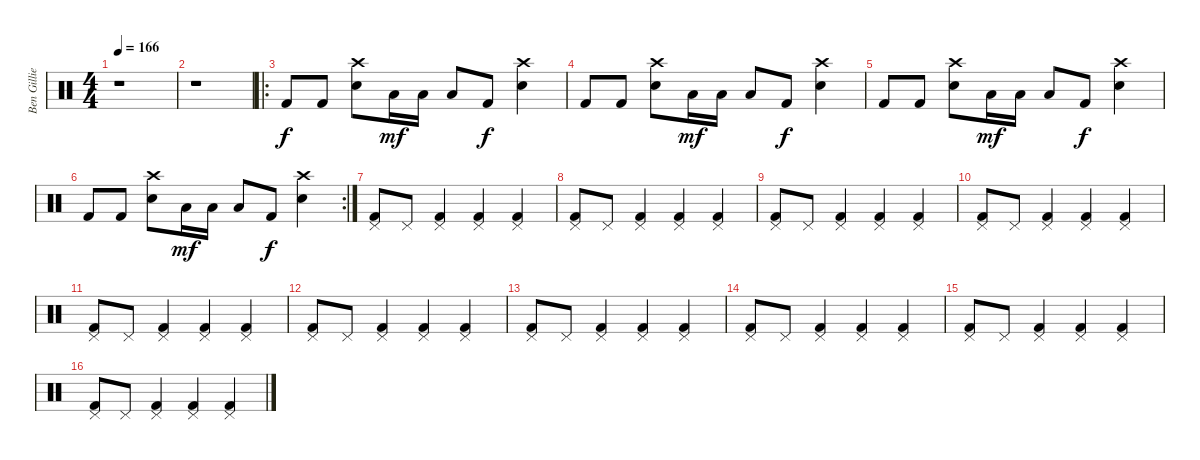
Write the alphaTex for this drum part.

\track ("Ben Gillies" "Ben Gillie") {instrument percussion}
\staff {score}
\articulation defaults
\ts (4 4)
\tempo 166
\clef neutral
\ks c
r.1{dy f} |
r.1 |
\ro "Kick (hit) 2".8 "Kick (hit) 2".8
("Crash high (hit)" "Electric Snare (hit)").8 "Low Tom (hit)".16{dy mf} "Low Tom (hit)".16 "Low Tom (hit)".8 "Kick (hit) 2".8{dy f} ("Crash high (hit)" "Electric Snare (hit)").4 |
"Kick (hit) 2".8 "Kick (hit) 2".8 ("Crash high (hit)" "Electric Snare (hit)").8 "Low Tom (hit)".16{dy mf} "Low Tom (hit)".16 "Low Tom (hit)".8 "Kick (hit) 2".8{dy f} ("Crash high (hit)" "Electric Snare (hit)").4 |
"Kick (hit) 2".8 "Kick (hit) 2".8 ("Crash high (hit)" "Electric Snare (hit)").8 "Low Tom (hit)".16{dy mf} "Low Tom (hit)".16 "Low Tom (hit)".8 "Kick (hit) 2".8{dy f} ("Crash high (hit)" "Electric Snare (hit)").4 |
\rc 2 "Kick (hit) 2".8 "Kick (hit) 2".8
("Crash high (hit)" "Electric Snare (hit)").8 "Low Tom (hit)".16{dy mf} "Low Tom (hit)".16 "Low Tom (hit)".8 "Kick (hit) 2".8{dy f} ("Crash high (hit)" "Electric Snare (hit)").4 |
("Pedal Hi-Hat (hit)" "Kick (hit) 2").8 "Pedal Hi-Hat (hit)".8 ("Pedal Hi-Hat (hit)" "Kick (hit) 2").4 ("Pedal Hi-Hat (hit)" "Kick (hit) 2").4 ("Pedal Hi-Hat (hit)" "Kick (hit) 2").4 |
("Pedal Hi-Hat (hit)" "Kick (hit) 2").8 "Pedal Hi-Hat (hit)".8 ("Pedal Hi-Hat (hit)" "Kick (hit) 2").4 ("Pedal Hi-Hat (hit)" "Kick (hit) 2").4 ("Pedal Hi-Hat (hit)" "Kick (hit) 2").4 |
("Pedal Hi-Hat (hit)" "Kick (hit) 2").8 "Pedal Hi-Hat (hit)".8 ("Pedal Hi-Hat (hit)" "Kick (hit) 2").4 ("Pedal Hi-Hat (hit)" "Kick (hit) 2").4 ("Pedal Hi-Hat (hit)" "Kick (hit) 2").4 |
("Pedal Hi-Hat (hit)" "Kick (hit) 2").8 "Pedal Hi-Hat (hit)".8 ("Pedal Hi-Hat (hit)" "Kick (hit) 2").4 ("Pedal Hi-Hat (hit)" "Kick (hit) 2").4 ("Pedal Hi-Hat (hit)" "Kick (hit) 2").4 |
("Pedal Hi-Hat (hit)" "Kick (hit) 2").8 "Pedal Hi-Hat (hit)".8 ("Pedal Hi-Hat (hit)" "Kick (hit) 2").4 ("Pedal Hi-Hat (hit)" "Kick (hit) 2").4 ("Pedal Hi-Hat (hit)" "Kick (hit) 2").4 |
("Pedal Hi-Hat (hit)" "Kick (hit) 2").8 "Pedal Hi-Hat (hit)".8 ("Pedal Hi-Hat (hit)" "Kick (hit) 2").4 ("Pedal Hi-Hat (hit)" "Kick (hit) 2").4 ("Pedal Hi-Hat (hit)" "Kick (hit) 2").4 |
("Pedal Hi-Hat (hit)" "Kick (hit) 2").8 "Pedal Hi-Hat (hit)".8 ("Pedal Hi-Hat (hit)" "Kick (hit) 2").4 ("Pedal Hi-Hat (hit)" "Kick (hit) 2").4 ("Pedal Hi-Hat (hit)" "Kick (hit) 2").4 |
("Pedal Hi-Hat (hit)" "Kick (hit) 2").8 "Pedal Hi-Hat (hit)".8 ("Pedal Hi-Hat (hit)" "Kick (hit) 2").4 ("Pedal Hi-Hat (hit)" "Kick (hit) 2").4 ("Pedal Hi-Hat (hit)" "Kick (hit) 2").4 |
("Pedal Hi-Hat (hit)" "Kick (hit) 2").8 "Pedal Hi-Hat (hit)".8 ("Pedal Hi-Hat (hit)" "Kick (hit) 2").4 ("Pedal Hi-Hat (hit)" "Kick (hit) 2").4 ("Pedal Hi-Hat (hit)" "Kick (hit) 2").4 |
("Pedal Hi-Hat (hit)" "Kick (hit) 2").8 "Pedal Hi-Hat (hit)".8 ("Pedal Hi-Hat (hit)" "Kick (hit) 2").4 ("Pedal Hi-Hat (hit)" "Kick (hit) 2").4 ("Pedal Hi-Hat (hit)" "Kick (hit) 2").4
